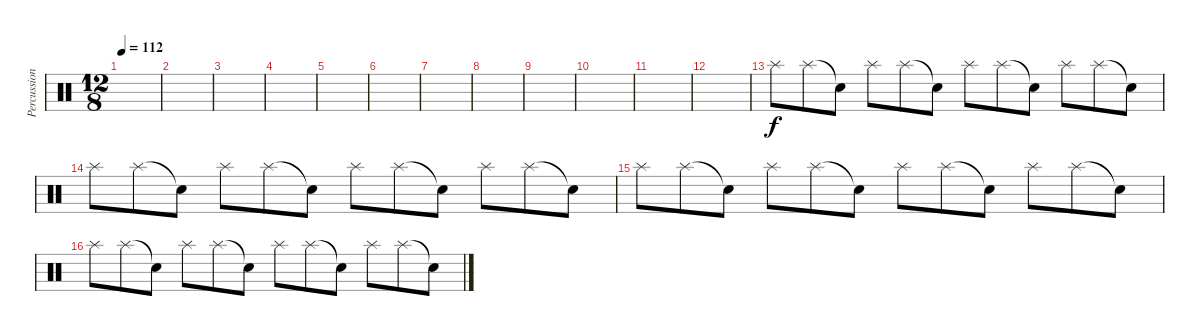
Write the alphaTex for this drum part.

\track ("Percussions" "Percussion") {instrument percussion}
\staff {score}
\articulation defaults
\ts (12 8)
\tempo 112
\clef neutral
\ks c
|
|
|
|
|
|
|
|
|
|
|
|
"Splash (hit)".8 "Splash (hit)".8 "Snare (hit)"{t}.8 "Splash (hit)".8 "Splash (hit)".8 "Snare (hit)"{t}.8 "Splash (hit)".8 "Splash (hit)".8 "Snare (hit)"{t}.8 "Splash (hit)".8 "Splash (hit)".8 "Snare (hit)"{t}.8 |
"Splash (hit)".8 "Splash (hit)".8 "Snare (hit)"{t}.8 "Splash (hit)".8 "Splash (hit)".8 "Snare (hit)"{t}.8 "Splash (hit)".8 "Splash (hit)".8 "Snare (hit)"{t}.8 "Splash (hit)".8 "Splash (hit)".8 "Snare (hit)"{t}.8 |
"Splash (hit)".8 "Splash (hit)".8 "Snare (hit)"{t}.8 "Splash (hit)".8 "Splash (hit)".8 "Snare (hit)"{t}.8 "Splash (hit)".8 "Splash (hit)".8 "Snare (hit)"{t}.8 "Splash (hit)".8 "Splash (hit)".8 "Snare (hit)"{t}.8 |
"Splash (hit)".8 "Splash (hit)".8 "Snare (hit)"{t}.8 "Splash (hit)".8 "Splash (hit)".8 "Snare (hit)"{t}.8 "Splash (hit)".8 "Splash (hit)".8 "Snare (hit)"{t}.8 "Splash (hit)".8 "Splash (hit)".8 "Snare (hit)"{t}.8
